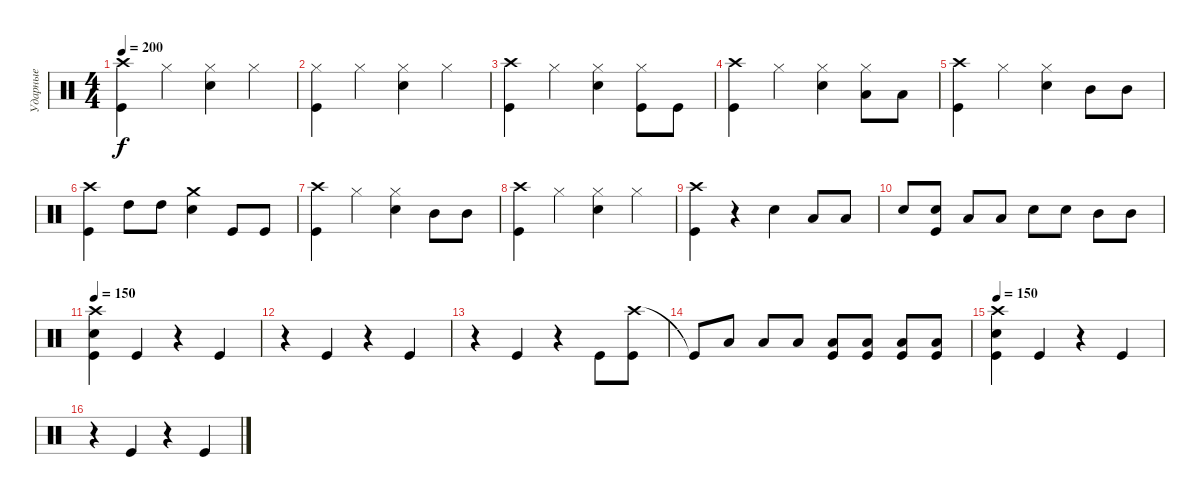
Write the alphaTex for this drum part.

\track ("Ударные" "Ударные") {instrument percussion}
\staff {score}
\articulation defaults
\ts (4 4)
\tempo 200
\clef neutral
\ks c
("Crash high (hit)" "Kick (hit)").4{dy f} "Hi-Hat (closed)".4 ("Hi-Hat (closed)" "Electric Snare (hit)").4 "Hi-Hat (closed)".4 |
("Hi-Hat (closed)" "Kick (hit)").4 "Hi-Hat (closed)".4 ("Hi-Hat (closed)" "Electric Snare (hit)").4 "Hi-Hat (closed)".4 |
("Crash high (hit)" "Kick (hit)").4 "Hi-Hat (closed)".4 ("Hi-Hat (closed)" "Electric Snare (hit)").4 ("Hi-Hat (closed)" "Kick (hit)").8 "Kick (hit)".8 |
("Crash high (hit)" "Kick (hit)").4 "Hi-Hat (closed)".4 ("Hi-Hat (closed)" "Electric Snare (hit)").4 ("Low Tom (hit)" "Hi-Hat (closed)").8 "Low Tom (hit)".8 |
("Crash high (hit)" "Kick (hit)").4 "Hi-Hat (closed)".4 ("Hi-Hat (closed)" "Electric Snare (hit)").4 "Mid Tom (hit)".8 "Mid Tom (hit)".8 |
("Crash high (hit)" "Kick (hit)").4 "High Tom (hit)".8 "High Tom (hit)".8 ("Crash medium (hit)" "Electric Snare (hit)").4 "Kick (hit)".8 "Kick (hit)".8 |
("Crash high (hit)" "Kick (hit)").4 "Hi-Hat (closed)".4 ("Hi-Hat (closed)" "Electric Snare (hit)").4 "Mid Tom (hit)".8 "Mid Tom (hit)".8 |
("Crash high (hit)" "Kick (hit)").4 "Hi-Hat (closed)".4 ("Hi-Hat (closed)" "Electric Snare (hit)").4 "Hi-Hat (closed)".4 |
("Crash high (hit)" "Kick (hit)").4 r.4 "Electric Snare (hit)".4 "Low Tom (hit)".8 "Low Tom (hit)".8 |
"Electric Snare (hit)".8 ("Electric Snare (hit)" "Kick (hit)").8 "Low Tom (hit)".8 "Low Tom (hit)".8 "Electric Snare (hit)".8 "Electric Snare (hit)".8 "Mid Tom (hit)".8 "Mid Tom (hit)".8 |
\tempo 150
("Crash high (hit)" "Electric Snare (hit)" "Kick (hit)").4 "Kick (hit)".4 r.4 "Kick (hit)".4 |
r.4 "Kick (hit)".4 r.4 "Kick (hit)".4 |
r.4 "Kick (hit)".4 r.4 "Kick (hit)".8 ("Crash high (hit)" "Kick (hit)").8 |
"Kick (hit)"{t}.8 "Low Tom (hit)".8 "Low Tom (hit)".8 "Low Tom (hit)".8 ("Low Tom (hit)" "Kick (hit)").8 ("Low Tom (hit)" "Kick (hit)").8 ("Low Tom (hit)" "Kick (hit)").8 ("Low Tom (hit)" "Kick (hit)").8 |
\tempo 150
("Crash high (hit)" "Electric Snare (hit)" "Kick (hit)").4 "Kick (hit)".4 r.4 "Kick (hit)".4 |
r.4 "Kick (hit)".4 r.4 "Kick (hit)".4
